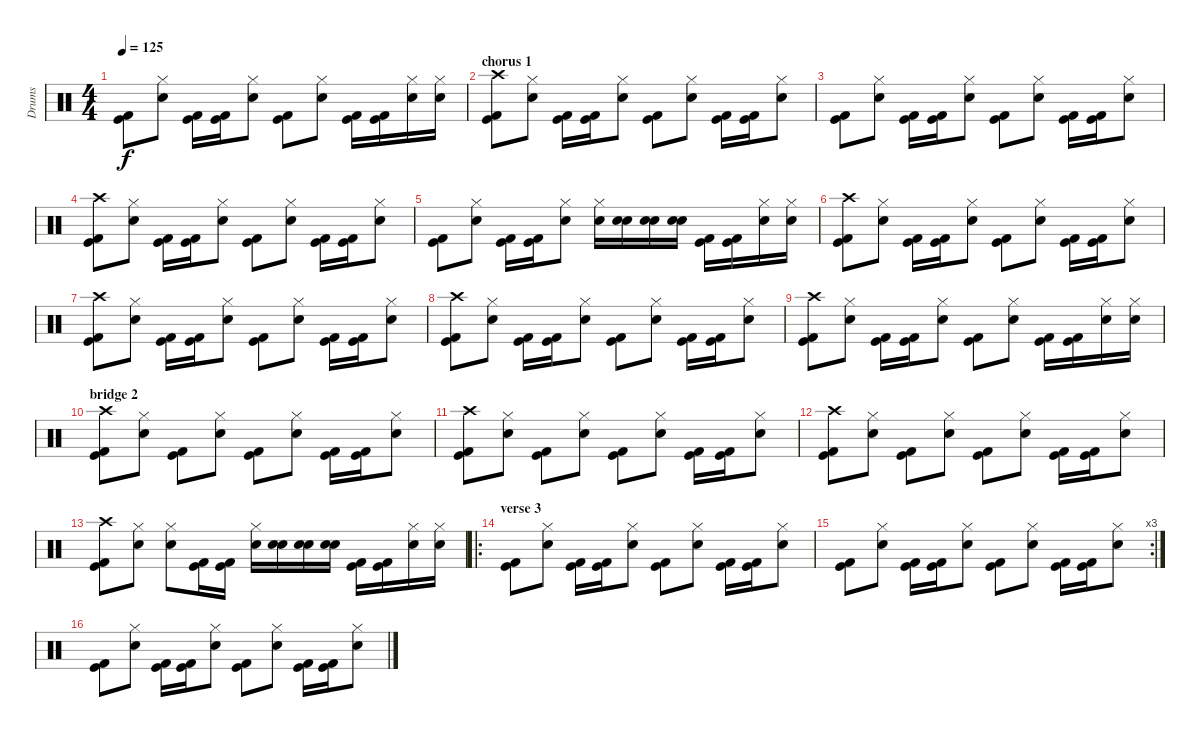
\track ("Drums" "Drums") {instrument percussion}
\staff {score}
\articulation defaults
\ts (4 4)
\tempo 125
\clef neutral
\ks c
("Kick (hit)" "Kick (hit) 2").8{dy f} ("Hi-Hat (closed)" "Electric Snare (hit)").8 ("Kick (hit)" "Kick (hit) 2").16 ("Kick (hit)" "Kick (hit) 2").16 ("Hi-Hat (closed)" "Electric Snare (hit)").8 ("Kick (hit)" "Kick (hit) 2").8 ("Hi-Hat (closed)" "Electric Snare (hit)").8 ("Kick (hit)" "Kick (hit) 2").16 ("Kick (hit)" "Kick (hit) 2").16 ("Hi-Hat (closed)" "Electric Snare (hit)").16 ("Hi-Hat (closed)" "Electric Snare (hit)").16 |
\section ("" "chorus 1")
("Crash high (hit)" "Kick (hit)" "Kick (hit) 2").8 ("Hi-Hat (closed)" "Electric Snare (hit)").8 ("Kick (hit)" "Kick (hit) 2").16 ("Kick (hit)" "Kick (hit) 2").16 ("Hi-Hat (closed)" "Electric Snare (hit)").8 ("Kick (hit)" "Kick (hit) 2").8 ("Hi-Hat (closed)" "Electric Snare (hit)").8 ("Kick (hit)" "Kick (hit) 2").16 ("Kick (hit)" "Kick (hit) 2").16 ("Hi-Hat (closed)" "Electric Snare (hit)").8 |
("Kick (hit)" "Kick (hit) 2").8 ("Hi-Hat (closed)" "Electric Snare (hit)").8 ("Kick (hit)" "Kick (hit) 2").16 ("Kick (hit)" "Kick (hit) 2").16 ("Hi-Hat (closed)" "Electric Snare (hit)").8 ("Kick (hit)" "Kick (hit) 2").8 ("Hi-Hat (closed)" "Electric Snare (hit)").8 ("Kick (hit)" "Kick (hit) 2").16 ("Kick (hit)" "Kick (hit) 2").16 ("Hi-Hat (closed)" "Electric Snare (hit)").8 |
("Crash high (hit)" "Kick (hit)" "Kick (hit) 2").8 ("Hi-Hat (closed)" "Electric Snare (hit)").8 ("Kick (hit)" "Kick (hit) 2").16 ("Kick (hit)" "Kick (hit) 2").16 ("Hi-Hat (closed)" "Electric Snare (hit)").8 ("Kick (hit)" "Kick (hit) 2").8 ("Hi-Hat (closed)" "Electric Snare (hit)").8 ("Kick (hit)" "Kick (hit) 2").16 ("Kick (hit)" "Kick (hit) 2").16 ("Hi-Hat (closed)" "Electric Snare (hit)").8 |
("Kick (hit)" "Kick (hit) 2").8 ("Hi-Hat (closed)" "Electric Snare (hit)").8 ("Kick (hit)" "Kick (hit) 2").16 ("Kick (hit)" "Kick (hit) 2").16 ("Hi-Hat (closed)" "Electric Snare (hit)").8 ("Hi-Hat (closed)" "Electric Snare (hit)").16 ("Electric Snare (hit)" "Snare (hit) 2").16 ("Electric Snare (hit)" "Snare (hit) 2").16 ("Electric Snare (hit)" "Snare (hit) 2").16 ("Kick (hit)" "Kick (hit) 2").16 ("Kick (hit)" "Kick (hit) 2").16 ("Hi-Hat (closed)" "Electric Snare (hit)").16 ("Hi-Hat (closed)" "Electric Snare (hit)").16 |
("Crash high (hit)" "Kick (hit)" "Kick (hit) 2").8 ("Hi-Hat (closed)" "Electric Snare (hit)").8 ("Kick (hit)" "Kick (hit) 2").16 ("Kick (hit)" "Kick (hit) 2").16 ("Hi-Hat (closed)" "Electric Snare (hit)").8 ("Kick (hit)" "Kick (hit) 2").8 ("Hi-Hat (closed)" "Electric Snare (hit)").8 ("Kick (hit)" "Kick (hit) 2").16 ("Kick (hit)" "Kick (hit) 2").16 ("Hi-Hat (closed)" "Electric Snare (hit)").8 |
("Crash high (hit)" "Kick (hit)" "Kick (hit) 2").8 ("Hi-Hat (closed)" "Electric Snare (hit)").8 ("Kick (hit)" "Kick (hit) 2").16 ("Kick (hit)" "Kick (hit) 2").16 ("Hi-Hat (closed)" "Electric Snare (hit)").8 ("Kick (hit)" "Kick (hit) 2").8 ("Hi-Hat (closed)" "Electric Snare (hit)").8 ("Kick (hit)" "Kick (hit) 2").16 ("Kick (hit)" "Kick (hit) 2").16 ("Hi-Hat (closed)" "Electric Snare (hit)").8 |
("Crash high (hit)" "Kick (hit)" "Kick (hit) 2").8 ("Hi-Hat (closed)" "Electric Snare (hit)").8 ("Kick (hit)" "Kick (hit) 2").16 ("Kick (hit)" "Kick (hit) 2").16 ("Hi-Hat (closed)" "Electric Snare (hit)").8 ("Kick (hit)" "Kick (hit) 2").8 ("Hi-Hat (closed)" "Electric Snare (hit)").8 ("Kick (hit)" "Kick (hit) 2").16 ("Kick (hit)" "Kick (hit) 2").16 ("Hi-Hat (closed)" "Electric Snare (hit)").8 |
("Crash high (hit)" "Kick (hit)" "Kick (hit) 2").8 ("Hi-Hat (closed)" "Electric Snare (hit)").8 ("Kick (hit)" "Kick (hit) 2").16 ("Kick (hit)" "Kick (hit) 2").16 ("Hi-Hat (closed)" "Electric Snare (hit)").8 ("Kick (hit)" "Kick (hit) 2").8 ("Hi-Hat (closed)" "Electric Snare (hit)").8 ("Kick (hit)" "Kick (hit) 2").16 ("Kick (hit)" "Kick (hit) 2").16 ("Hi-Hat (closed)" "Electric Snare (hit)").16 ("Hi-Hat (closed)" "Electric Snare (hit)").16 |
\section ("" "bridge 2")
("Crash high (hit)" "Kick (hit)" "Kick (hit) 2").8 ("Hi-Hat (closed)" "Electric Snare (hit)").8 ("Kick (hit)" "Kick (hit) 2").8 ("Hi-Hat (closed)" "Electric Snare (hit)").8 ("Kick (hit)" "Kick (hit) 2").8 ("Hi-Hat (closed)" "Electric Snare (hit)").8 ("Kick (hit)" "Kick (hit) 2").16 ("Kick (hit)" "Kick (hit) 2").16 ("Hi-Hat (closed)" "Electric Snare (hit)").8 |
("Crash high (hit)" "Kick (hit)" "Kick (hit) 2").8 ("Hi-Hat (closed)" "Electric Snare (hit)").8 ("Kick (hit)" "Kick (hit) 2").8 ("Hi-Hat (closed)" "Electric Snare (hit)").8 ("Kick (hit)" "Kick (hit) 2").8 ("Hi-Hat (closed)" "Electric Snare (hit)").8 ("Kick (hit)" "Kick (hit) 2").16 ("Kick (hit)" "Kick (hit) 2").16 ("Hi-Hat (closed)" "Electric Snare (hit)").8 |
("Crash high (hit)" "Kick (hit)" "Kick (hit) 2").8 ("Hi-Hat (closed)" "Electric Snare (hit)").8 ("Kick (hit)" "Kick (hit) 2").8 ("Hi-Hat (closed)" "Electric Snare (hit)").8 ("Kick (hit)" "Kick (hit) 2").8 ("Hi-Hat (closed)" "Electric Snare (hit)").8 ("Kick (hit)" "Kick (hit) 2").16 ("Kick (hit)" "Kick (hit) 2").16 ("Hi-Hat (closed)" "Electric Snare (hit)").8 |
("Crash high (hit)" "Kick (hit)" "Kick (hit) 2").8 ("Hi-Hat (closed)" "Electric Snare (hit)").8 ("Hi-Hat (closed)" "Electric Snare (hit)").8 ("Kick (hit)" "Kick (hit) 2").16 ("Kick (hit)" "Kick (hit) 2").16 ("Hi-Hat (closed)" "Electric Snare (hit)").16 ("Electric Snare (hit)" "Snare (hit) 2").16 ("Electric Snare (hit)" "Snare (hit) 2").16 ("Electric Snare (hit)" "Snare (hit) 2").16 ("Kick (hit)" "Kick (hit) 2").16 ("Kick (hit)" "Kick (hit) 2").16 ("Hi-Hat (closed)" "Electric Snare (hit)").16 ("Hi-Hat (closed)" "Electric Snare (hit)").16 |
\ro
\section ("" "verse 3")
("Kick (hit)" "Kick (hit) 2").8 ("Hi-Hat (closed)" "Electric Snare (hit)").8 ("Kick (hit)" "Kick (hit) 2").16 ("Kick (hit)" "Kick (hit) 2").16 ("Hi-Hat (closed)" "Electric Snare (hit)").8 ("Kick (hit)" "Kick (hit) 2").8 ("Hi-Hat (closed)" "Electric Snare (hit)").8 ("Kick (hit)" "Kick (hit) 2").16 ("Kick (hit)" "Kick (hit) 2").16 ("Hi-Hat (closed)" "Electric Snare (hit)").8 |
\rc 3
("Kick (hit)" "Kick (hit) 2").8 ("Hi-Hat (closed)" "Electric Snare (hit)").8 ("Kick (hit)" "Kick (hit) 2").16 ("Kick (hit)" "Kick (hit) 2").16 ("Hi-Hat (closed)" "Electric Snare (hit)").8 ("Kick (hit)" "Kick (hit) 2").8 ("Hi-Hat (closed)" "Electric Snare (hit)").8 ("Kick (hit)" "Kick (hit) 2").16 ("Kick (hit)" "Kick (hit) 2").16 ("Hi-Hat (closed)" "Electric Snare (hit)").8 |
("Kick (hit)" "Kick (hit) 2").8 ("Hi-Hat (closed)" "Electric Snare (hit)").8 ("Kick (hit)" "Kick (hit) 2").16 ("Kick (hit)" "Kick (hit) 2").16 ("Hi-Hat (closed)" "Electric Snare (hit)").8 ("Kick (hit)" "Kick (hit) 2").8 ("Hi-Hat (closed)" "Electric Snare (hit)").8 ("Kick (hit)" "Kick (hit) 2").16 ("Kick (hit)" "Kick (hit) 2").16 ("Hi-Hat (closed)" "Electric Snare (hit)").8
